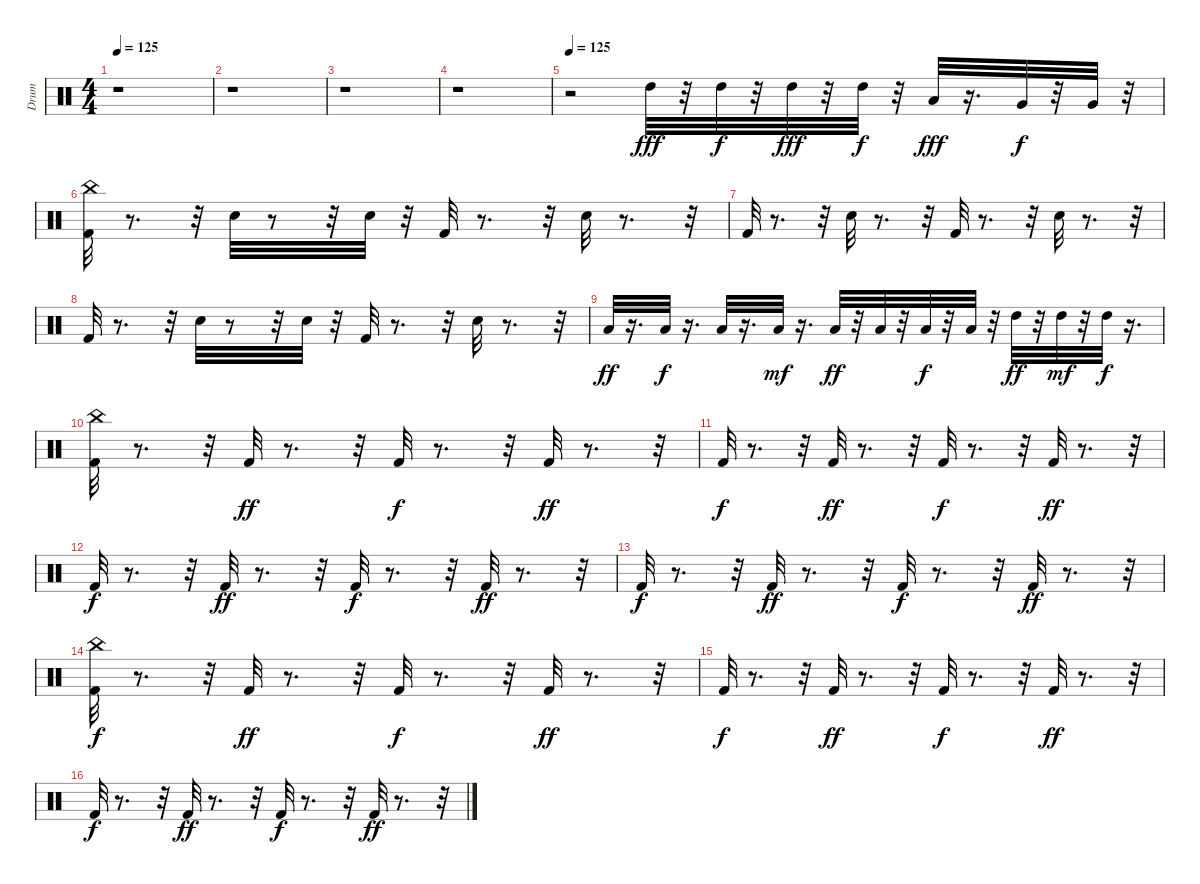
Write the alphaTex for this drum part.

\track ("Drum" "Drum") {instrument percussion}
\staff {score}
\articulation defaults
\ts (4 4)
\tempo 125
\tempo 135
\tempo 125
\clef neutral
\ks c
r.1{dy fff} |
r.1 |
r.1 |
r.1 |
\tempo 125
r.2 "High Tom (hit)".32 r.32 "High Tom (hit)".32{dy f} r.32 "High Tom (hit)".32{dy fff} r.32 "High Tom (hit)".32{dy f} r.32 "Low Tom (hit)".32{dy fff} r.16{d} "Very Low Tom (hit)".32{dy f} r.32 "Very Low Tom (hit)".32 r.32 |
("China (hit)" "Kick (hit) 2").32 r.8{d} r.32 "Snare (hit) 2".32 r.8 r.32 "Snare (hit) 2".32 r.32 "Kick (hit) 2".32 r.8{d} r.32 "Snare (hit) 2".32 r.8{d} r.32 |
"Kick (hit) 2".32 r.8{d} r.32 "Snare (hit) 2".32 r.8{d} r.32 "Kick (hit) 2".32 r.8{d} r.32 "Snare (hit) 2".32 r.8{d} r.32 |
"Kick (hit) 2".32 r.8{d} r.32 "Snare (hit) 2".32 r.8 r.32 "Snare (hit) 2".32 r.32 "Kick (hit) 2".32 r.8{d} r.32 "Snare (hit) 2".32 r.8{d} r.32 |
"Low Tom (hit)".32{dy ff} r.16{d} "Low Tom (hit)".32{dy f} r.16{d} "Low Tom (hit)".32 r.16{d} "Low Tom (hit)".32{dy mf} r.16{d} "Low Floor Tom (hit)".32{dy ff} r.32 "Low Floor Tom (hit)".32 r.32 "Low Floor Tom (hit)".32{dy f} r.32 "Low Floor Tom (hit)".32 r.32 "High Tom (hit)".32{dy ff} r.32 "High Tom (hit)".32{dy mf} r.32 "High Tom (hit)".32{dy f} r.16{d} |
("China (hit)" "Kick (hit) 2").32 r.8{d} r.32 "Kick (hit) 2".32{dy ff} r.8{d} r.32 "Kick (hit) 2".32{dy f} r.8{d} r.32 "Kick (hit) 2".32{dy ff} r.8{d} r.32 |
"Kick (hit) 2".32{dy f} r.8{d} r.32 "Kick (hit) 2".32{dy ff} r.8{d} r.32 "Kick (hit) 2".32{dy f} r.8{d} r.32 "Kick (hit) 2".32{dy ff} r.8{d} r.32 |
"Kick (hit) 2".32{dy f} r.8{d} r.32 "Kick (hit) 2".32{dy ff} r.8{d} r.32 "Kick (hit) 2".32{dy f} r.8{d} r.32 "Kick (hit) 2".32{dy ff} r.8{d} r.32 |
"Kick (hit) 2".32{dy f} r.8{d} r.32 "Kick (hit) 2".32{dy ff} r.8{d} r.32 "Kick (hit) 2".32{dy f} r.8{d} r.32 "Kick (hit) 2".32{dy ff} r.8{d} r.32 |
("China (hit)" "Kick (hit) 2").32{dy f} r.8{d} r.32 "Kick (hit) 2".32{dy ff} r.8{d} r.32 "Kick (hit) 2".32{dy f} r.8{d} r.32 "Kick (hit) 2".32{dy ff} r.8{d} r.32 |
"Kick (hit) 2".32{dy f} r.8{d} r.32 "Kick (hit) 2".32{dy ff} r.8{d} r.32 "Kick (hit) 2".32{dy f} r.8{d} r.32 "Kick (hit) 2".32{dy ff} r.8{d} r.32 |
"Kick (hit) 2".32{dy f} r.8{d} r.32 "Kick (hit) 2".32{dy ff} r.8{d} r.32 "Kick (hit) 2".32{dy f} r.8{d} r.32 "Kick (hit) 2".32{dy ff} r.8{d} r.32
